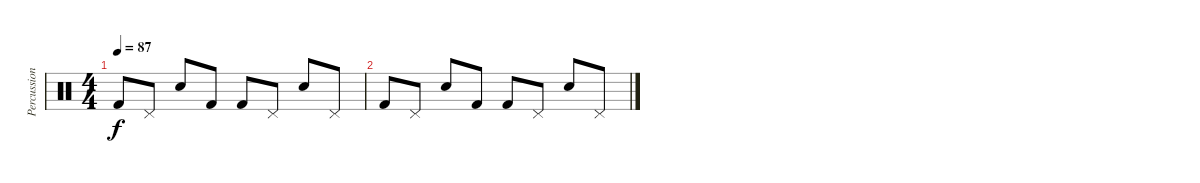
\track ("Percussion" "Percussion") {instrument percussion}
\staff {score}
\articulation defaults
\ts (4 4)
\tempo 87
\clef neutral
\ks c "Kick (hit) 2".8{dy f} "Pedal Hi-Hat (hit)".8 "Electric Snare (hit)".8 "Kick (hit) 2".8 "Kick (hit) 2".8 "Pedal Hi-Hat (hit)".8 "Electric Snare (hit)".8 "Pedal Hi-Hat (hit)".8
|
"Kick (hit) 2".8 "Pedal Hi-Hat (hit)".8 "Electric Snare (hit)".8 "Kick (hit) 2".8 "Kick (hit) 2".8 "Pedal Hi-Hat (hit)".8 "Electric Snare (hit)".8 "Pedal Hi-Hat (hit)".8
